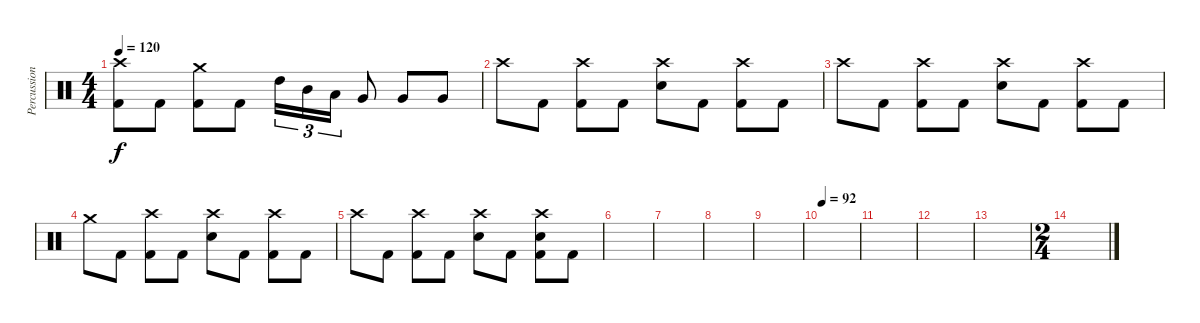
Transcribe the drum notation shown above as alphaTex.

\track ("Percussion" "Percussion") {instrument percussion}
\staff {score}
\articulation defaults
\ts (4 4)
\tempo 120
\clef neutral
\ks c
("Crash high (hit)" "Kick (hit) 2").8{dy f} "Kick (hit) 2".8 ("Crash medium (hit)" "Kick (hit) 2").8 "Kick (hit) 2".8 "High Tom (hit)".16{tu (3 2)} "Mid Tom (hit)".16{tu (3 2)} "Low Tom (hit)".16{tu (3 2)} "Very Low Tom (hit)".8 "Very Low Tom (hit)".8 "Very Low Tom (hit)".8 |
"Crash high (hit)".8{volume 0} "Kick (hit) 2".8 ("Crash high (hit)" "Kick (hit) 2").8 "Kick (hit) 2".8 ("Crash high (hit)" "Snare (hit) 2").8 "Kick (hit) 2".8 ("Crash high (hit)" "Kick (hit) 2").8 "Kick (hit) 2".8 |
"Crash high (hit)".8 "Kick (hit) 2".8 ("Crash high (hit)" "Kick (hit) 2").8 "Kick (hit) 2".8 ("Crash high (hit)" "Snare (hit) 2").8 "Kick (hit) 2".8 ("Crash high (hit)" "Kick (hit) 2").8 "Kick (hit) 2".8 |
"Crash medium (hit)".8 "Kick (hit) 2".8 ("Crash high (hit)" "Kick (hit) 2").8 "Kick (hit) 2".8 ("Crash high (hit)" "Snare (hit) 2").8 "Kick (hit) 2".8 ("Crash high (hit)" "Kick (hit) 2").8 "Kick (hit) 2".8 |
"Crash high (hit)".8 "Kick (hit) 2".8 ("Crash high (hit)" "Kick (hit) 2").8 "Kick (hit) 2".8 ("Crash high (hit)" "Snare (hit) 2").8 "Kick (hit) 2".8 ("Crash high (hit)" "Snare (hit) 2" "Kick (hit) 2").8 "Kick (hit) 2".8 |
|
|
|
|
\tempo 92
|
|
|
|
\ts (2 4)
